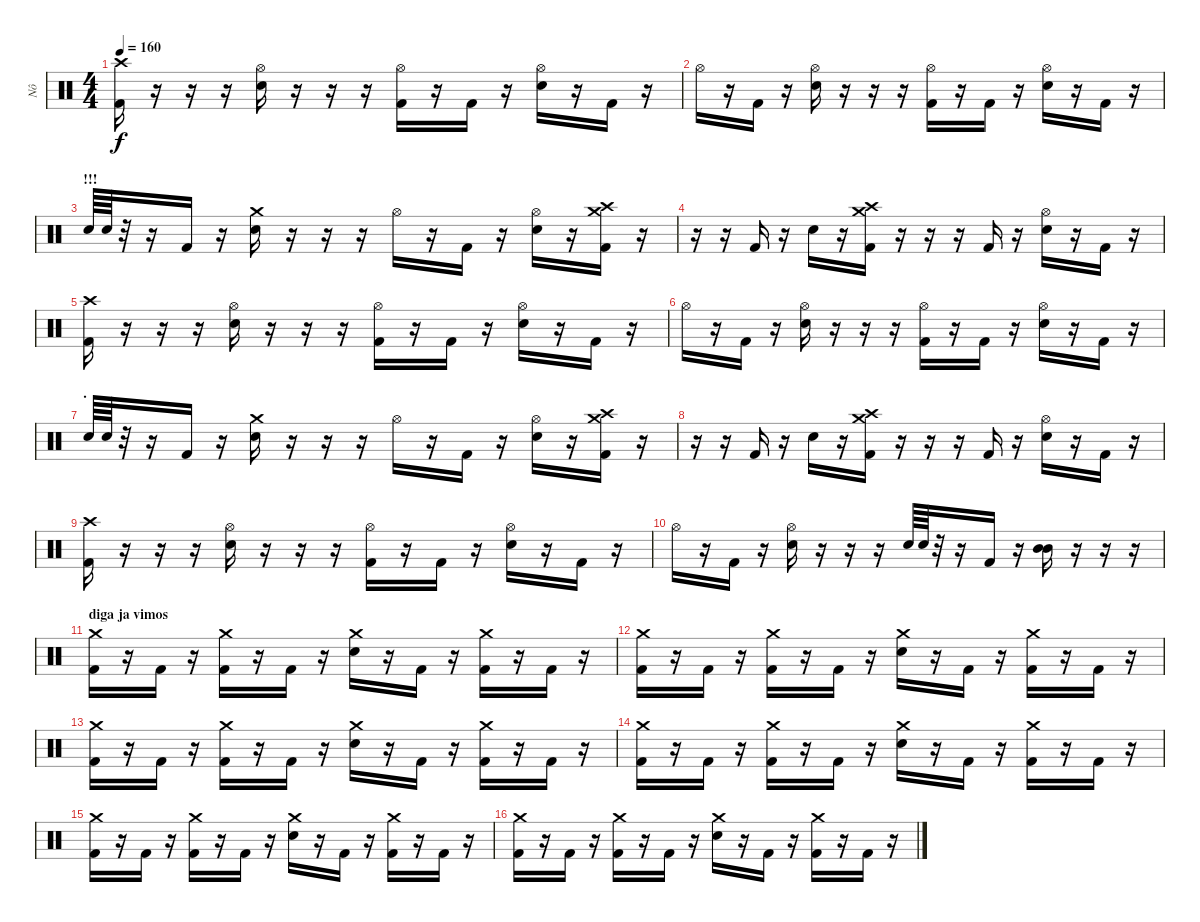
\track ("Nô" "Nô") {instrument percussion}
\staff {score}
\articulation defaults
\ts (4 4)
\tempo 160
\clef neutral
\ks c
("Crash high (hit)" "Kick (hit) 2").16{dy f} r.16 r.16 r.16 ("Hi-Hat (open)" "Electric Snare (hit)").16 r.16 r.16 r.16 ("Hi-Hat (open)" "Kick (hit) 2").16 r.16 "Kick (hit) 2".16 r.16 ("Hi-Hat (open)" "Electric Snare (hit)").16 r.16 "Kick (hit) 2".16 r.16 |
"Hi-Hat (open)".16 r.16 "Kick (hit) 2".16 r.16 ("Hi-Hat (open)" "Electric Snare (hit)").16 r.16 r.16 r.16 ("Hi-Hat (open)" "Kick (hit) 2").16 r.16 "Kick (hit) 2".16 r.16 ("Hi-Hat (open)" "Electric Snare (hit)").16 r.16 "Kick (hit) 2".16 r.16 |
\section ("" "!!!")
"Electric Snare (hit)".64 "Electric Snare (hit)".64 r.32 r.16 "Kick (hit) 2".16 r.16 ("Crash medium (hit)" "Electric Snare (hit)").16 r.16 r.16 r.16 "Hi-Hat (open)".16 r.16 "Kick (hit) 2".16 r.16 ("Hi-Hat (open)" "Electric Snare (hit)").16 r.16 ("Crash high (hit)" "Crash medium (hit)" "Kick (hit) 2").16 r.16 |
r.16 r.16 "Kick (hit) 2".16 r.16 "Electric Snare (hit)".16 r.16 ("Crash high (hit)" "Crash medium (hit)" "Kick (hit) 2").16 r.16 r.16 r.16 "Kick (hit) 2".16 r.16 ("Hi-Hat (open)" "Electric Snare (hit)").16 r.16 "Kick (hit) 2".16 r.16 |
("Crash high (hit)" "Kick (hit) 2").16 r.16 r.16 r.16 ("Hi-Hat (open)" "Electric Snare (hit)").16 r.16 r.16 r.16 ("Hi-Hat (open)" "Kick (hit) 2").16 r.16 "Kick (hit) 2".16 r.16 ("Hi-Hat (open)" "Electric Snare (hit)").16 r.16 "Kick (hit) 2".16 r.16 |
"Hi-Hat (open)".16 r.16 "Kick (hit) 2".16 r.16 ("Hi-Hat (open)" "Electric Snare (hit)").16 r.16 r.16 r.16 ("Hi-Hat (open)" "Kick (hit) 2").16 r.16 "Kick (hit) 2".16 r.16 ("Hi-Hat (open)" "Electric Snare (hit)").16 r.16 "Kick (hit) 2".16 r.16 |
\section ("" ".")
"Electric Snare (hit)".64 "Electric Snare (hit)".64 r.32 r.16 "Kick (hit) 2".16 r.16 ("Crash medium (hit)" "Electric Snare (hit)").16 r.16 r.16 r.16 "Hi-Hat (open)".16 r.16 "Kick (hit) 2".16 r.16 ("Hi-Hat (open)" "Electric Snare (hit)").16 r.16 ("Crash high (hit)" "Crash medium (hit)" "Kick (hit) 2").16 r.16 |
r.16 r.16 "Kick (hit) 2".16 r.16 "Electric Snare (hit)".16 r.16 ("Crash high (hit)" "Crash medium (hit)" "Kick (hit) 2").16 r.16 r.16 r.16 "Kick (hit) 2".16 r.16 ("Hi-Hat (open)" "Electric Snare (hit)").16 r.16 "Kick (hit) 2".16 r.16 |
("Crash high (hit)" "Kick (hit) 2").16 r.16 r.16 r.16 ("Hi-Hat (open)" "Electric Snare (hit)").16 r.16 r.16 r.16 ("Hi-Hat (open)" "Kick (hit) 2").16 r.16 "Kick (hit) 2".16 r.16 ("Hi-Hat (open)" "Electric Snare (hit)").16 r.16 "Kick (hit) 2".16 r.16 |
"Hi-Hat (open)".16 r.16 "Kick (hit) 2".16 r.16 ("Hi-Hat (open)" "Electric Snare (hit)").16 r.16 r.16 r.16 "Electric Snare (hit)".64 "Electric Snare (hit)".64 r.32 r.16 "Kick (hit) 2".16 r.16 ("Mid Tom (hit)" "Mid Tom (hit)").16 r.16 r.16 r.16 |
\section ("" "diga ja vimos")
("Crash medium (hit)" "Kick (hit) 2").16 r.16 "Kick (hit) 2".16 r.16 ("Crash medium (hit)" "Kick (hit) 2").16 r.16 "Kick (hit) 2".16 r.16 ("Crash medium (hit)" "Electric Snare (hit)").16 r.16 "Kick (hit) 2".16 r.16 ("Crash medium (hit)" "Kick (hit) 2").16 r.16 "Kick (hit) 2".16 r.16 |
("Crash medium (hit)" "Kick (hit) 2").16 r.16 "Kick (hit) 2".16 r.16 ("Crash medium (hit)" "Kick (hit) 2").16 r.16 "Kick (hit) 2".16 r.16 ("Crash medium (hit)" "Electric Snare (hit)").16 r.16 "Kick (hit) 2".16 r.16 ("Crash medium (hit)" "Kick (hit) 2").16 r.16 "Kick (hit) 2".16 r.16 |
("Crash medium (hit)" "Kick (hit) 2").16 r.16 "Kick (hit) 2".16 r.16 ("Crash medium (hit)" "Kick (hit) 2").16 r.16 "Kick (hit) 2".16 r.16 ("Crash medium (hit)" "Electric Snare (hit)").16 r.16 "Kick (hit) 2".16 r.16 ("Crash medium (hit)" "Kick (hit) 2").16 r.16 "Kick (hit) 2".16 r.16 |
("Crash medium (hit)" "Kick (hit) 2").16 r.16 "Kick (hit) 2".16 r.16 ("Crash medium (hit)" "Kick (hit) 2").16 r.16 "Kick (hit) 2".16 r.16 ("Crash medium (hit)" "Electric Snare (hit)").16 r.16 "Kick (hit) 2".16 r.16 ("Crash medium (hit)" "Kick (hit) 2").16 r.16 "Kick (hit) 2".16 r.16 |
("Crash medium (hit)" "Kick (hit) 2").16 r.16 "Kick (hit) 2".16 r.16 ("Crash medium (hit)" "Kick (hit) 2").16 r.16 "Kick (hit) 2".16 r.16 ("Crash medium (hit)" "Electric Snare (hit)").16 r.16 "Kick (hit) 2".16 r.16 ("Crash medium (hit)" "Kick (hit) 2").16 r.16 "Kick (hit) 2".16 r.16 |
("Crash medium (hit)" "Kick (hit) 2").16 r.16 "Kick (hit) 2".16 r.16 ("Crash medium (hit)" "Kick (hit) 2").16 r.16 "Kick (hit) 2".16 r.16 ("Crash medium (hit)" "Electric Snare (hit)").16 r.16 "Kick (hit) 2".16 r.16 ("Crash medium (hit)" "Kick (hit) 2").16 r.16 "Kick (hit) 2".16 r.16
